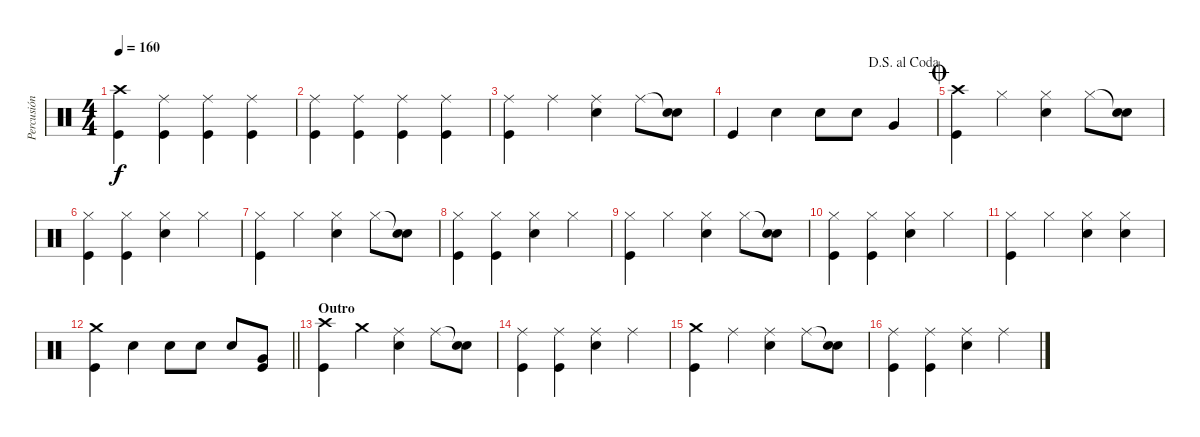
\track ("Percusión" "Percusión") {instrument percussion}
\staff {score}
\articulation defaults
\ts (4 4)
\tempo 160
\clef neutral
\ks c
("Crash high (hit)" "Kick (hit)").4{dy f} ("Ride (middle)" "Kick (hit)").4 ("Ride (middle)" "Kick (hit)").4 ("Ride (middle)" "Kick (hit)").4 |
("Ride (middle)" "Kick (hit)").4 ("Ride (middle)" "Kick (hit)").4 ("Ride (middle)" "Kick (hit)").4 ("Ride (middle)" "Kick (hit)").4 |
("Ride (middle)" "Kick (hit)").4 "Ride (middle)".4 ("Ride (middle)" "Snare (hit) 2").4 "Ride (middle)".8 ("Snare (hit)"{t} "Snare (hit) 2").8 |
\jump dalsegnoalcoda "Kick (hit)".4 "Snare (hit) 2".4 "Snare (hit) 2".8 "Snare (hit) 2".8 "Very Low Tom (hit)".4
|
\jump coda
("Crash high (hit)" "Kick (hit)").4 "Hi-Hat (closed)".4 ("Hi-Hat (closed)" "Snare (hit) 2").4 "Hi-Hat (closed)".8 ("Snare (hit)"{t} "Snare (hit) 2").8 |
("Hi-Hat (closed)" "Kick (hit)").4 ("Hi-Hat (closed)" "Kick (hit)").4 ("Hi-Hat (closed)" "Snare (hit) 2").4 "Hi-Hat (closed)".4 |
("Hi-Hat (closed)" "Kick (hit)").4 "Hi-Hat (closed)".4 ("Hi-Hat (closed)" "Snare (hit) 2").4 "Hi-Hat (closed)".8 ("Snare (hit)"{t} "Snare (hit) 2").8 |
("Hi-Hat (closed)" "Kick (hit)").4 ("Hi-Hat (closed)" "Kick (hit)").4 ("Hi-Hat (closed)" "Snare (hit) 2").4 "Hi-Hat (closed)".4 |
("Hi-Hat (closed)" "Kick (hit)").4 "Hi-Hat (closed)".4 ("Hi-Hat (closed)" "Snare (hit) 2").4 "Hi-Hat (closed)".8 ("Snare (hit)"{t} "Snare (hit) 2").8 |
("Hi-Hat (closed)" "Kick (hit)").4 ("Hi-Hat (closed)" "Kick (hit)").4 ("Hi-Hat (closed)" "Snare (hit) 2").4 "Hi-Hat (closed)".4 |
("Hi-Hat (closed)" "Kick (hit)").4 "Hi-Hat (closed)".4 ("Hi-Hat (closed)" "Snare (hit) 2").4 ("Hi-Hat (closed)" "Snare (hit) 2").4 |
\barLineRight lightlight
("Crash medium (hit)" "Kick (hit)").4 "Snare (hit) 2".4 "Snare (hit) 2".8 "Snare (hit) 2".8 "Snare (hit) 2".8 ("Very Low Tom (hit)" "Kick (hit)").8 |
\section ("" "Outro")
("Crash high (hit)" "Kick (hit)").4 "Crash medium (hit)".4 ("Ride (middle)" "Snare (hit) 2").4 "Ride (middle)".8 ("Snare (hit)"{t} "Snare (hit) 2").8 |
("Ride (middle)" "Kick (hit)").4 ("Ride (middle)" "Kick (hit)").4 ("Ride (middle)" "Snare (hit) 2").4 "Ride (middle)".4 |
("Crash medium (hit)" "Kick (hit)").4 "Ride (middle)".4 ("Ride (middle)" "Snare (hit) 2").4 "Ride (middle)".8 ("Snare (hit)"{t} "Snare (hit) 2").8 |
("Ride (middle)" "Kick (hit)").4 ("Ride (middle)" "Kick (hit)").4 ("Ride (middle)" "Snare (hit) 2").4 "Ride (middle)".4
